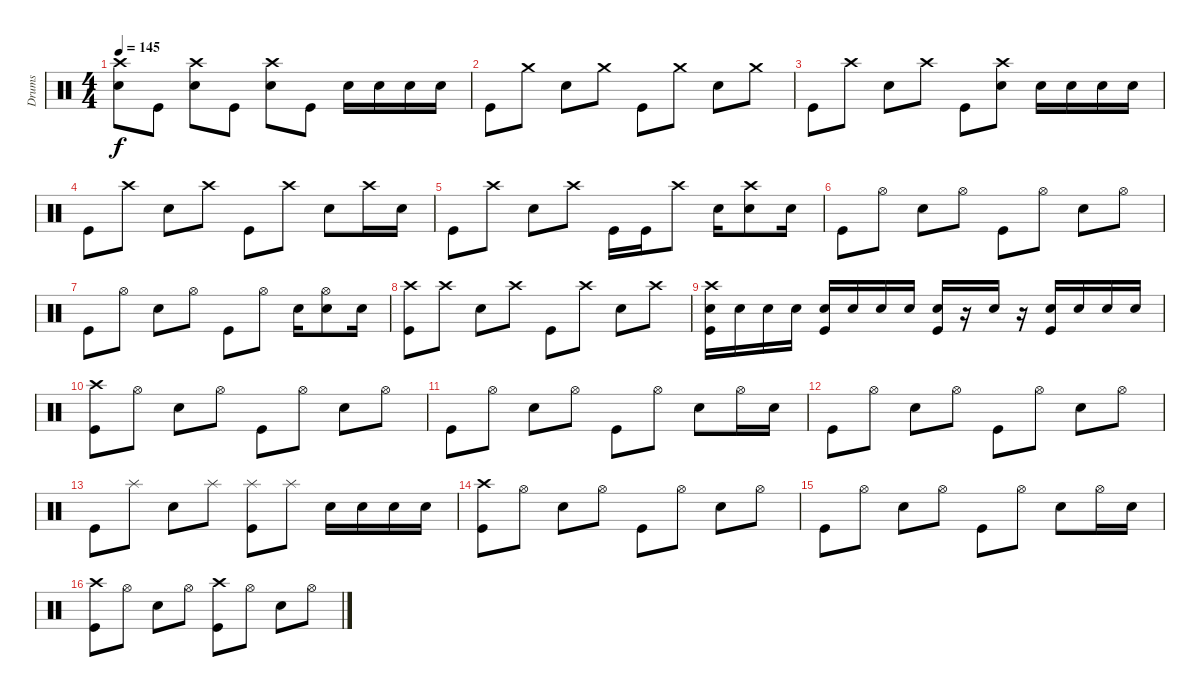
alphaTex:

\track ("Drums" "Drums") {instrument percussion}
\staff {score}
\articulation defaults
\ts (4 4)
\tempo 145
\clef neutral
\ks c
("Crash high (hit)" "Electric Snare (hit)").8{dy f} "Kick (hit)".8 ("Crash high (hit)" "Electric Snare (hit)").8 "Kick (hit)".8 ("Crash high (hit)" "Electric Snare (hit)").8 "Kick (hit)".8 "Electric Snare (hit)".16 "Electric Snare (hit)".16 "Electric Snare (hit)".16 "Electric Snare (hit)".16 |
"Kick (hit)".8 "Crash medium (hit)".8 "Electric Snare (hit)".8 "Crash medium (hit)".8 "Kick (hit)".8 "Crash medium (hit)".8 "Electric Snare (hit)".8 "Crash medium (hit)".8 |
"Kick (hit)".8 "Crash high (hit)".8 "Electric Snare (hit)".8 "Crash high (hit)".8 "Kick (hit)".8 ("Crash high (hit)" "Electric Snare (hit)").8 "Electric Snare (hit)".16 "Electric Snare (hit)".16 "Electric Snare (hit)".16 "Electric Snare (hit)".16 |
"Kick (hit)".8 "Crash high (hit)".8 "Electric Snare (hit)".8 "Crash high (hit)".8 "Kick (hit)".8 "Crash high (hit)".8 "Electric Snare (hit)".8 "Crash high (hit)".16 "Electric Snare (hit)".16 |
"Kick (hit)".8 "Crash high (hit)".8 "Electric Snare (hit)".8 "Crash high (hit)".8 "Kick (hit)".16 "Kick (hit)".16 "Crash high (hit)".8 "Electric Snare (hit)".16 ("Crash high (hit)" "Electric Snare (hit)").8 "Electric Snare (hit)".16 |
"Kick (hit)".8 "Hi-Hat (open)".8 "Electric Snare (hit)".8 "Hi-Hat (open)".8 "Kick (hit)".8 "Hi-Hat (open)".8 "Electric Snare (hit)".8 "Hi-Hat (open)".8 |
"Kick (hit)".8 "Hi-Hat (open)".8 "Electric Snare (hit)".8 "Hi-Hat (open)".8 "Kick (hit)".8 "Hi-Hat (open)".8 "Electric Snare (hit)".16 ("Electric Snare (hit)" "Hi-Hat (open)").8 "Electric Snare (hit)".16 |
("Crash high (hit)" "Kick (hit)").8 "Crash high (hit)".8 "Electric Snare (hit)".8 "Crash high (hit)".8 "Kick (hit)".8 "Crash high (hit)".8 "Electric Snare (hit)".8 "Crash high (hit)".8 |
("Crash high (hit)" "Electric Snare (hit)" "Kick (hit)").16 "Electric Snare (hit)".16 "Electric Snare (hit)".16 "Electric Snare (hit)".16 ("Electric Snare (hit)" "Kick (hit)").16 "Electric Snare (hit)".16 "Electric Snare (hit)".16 "Electric Snare (hit)".16 ("Electric Snare (hit)" "Kick (hit)").16 r.16 "Electric Snare (hit)".16 r.16 ("Electric Snare (hit)" "Kick (hit)").16 "Electric Snare (hit)".16 "Electric Snare (hit)".16 "Electric Snare (hit)".16 |
("Crash high (hit)" "Kick (hit)").8 "Hi-Hat (open)".8 "Electric Snare (hit)".8 "Hi-Hat (open)".8 "Kick (hit)".8 "Hi-Hat (open)".8 "Electric Snare (hit)".8 "Hi-Hat (open)".8 |
"Kick (hit)".8 "Hi-Hat (open)".8 "Electric Snare (hit)".8 "Hi-Hat (open)".8 "Kick (hit)".8 "Hi-Hat (open)".8 "Electric Snare (hit)".8 "Hi-Hat (open)".16 "Electric Snare (hit)".16 |
"Kick (hit)".8 "Hi-Hat (open)".8 "Electric Snare (hit)".8 "Hi-Hat (open)".8 "Kick (hit)".8 "Hi-Hat (open)".8 "Electric Snare (hit)".8 "Hi-Hat (open)".8 |
"Kick (hit)".8 "Splash (hit)".8 "Electric Snare (hit)".8 "Splash (hit)".8 ("Splash (hit)" "Kick (hit)").8 "Splash (hit)".8 "Electric Snare (hit)".16 "Electric Snare (hit)".16 "Electric Snare (hit)".16 "Electric Snare (hit)".16 |
("Crash high (hit)" "Kick (hit)").8 "Hi-Hat (open)".8 "Electric Snare (hit)".8 "Hi-Hat (open)".8 "Kick (hit)".8 "Hi-Hat (open)".8 "Electric Snare (hit)".8 "Hi-Hat (open)".8 |
"Kick (hit)".8 "Hi-Hat (open)".8 "Electric Snare (hit)".8 "Hi-Hat (open)".8 "Kick (hit)".8 "Hi-Hat (open)".8 "Electric Snare (hit)".8 "Hi-Hat (open)".16 "Electric Snare (hit)".16 |
("Crash high (hit)" "Kick (hit)").8 "Hi-Hat (open)".8 "Electric Snare (hit)".8 "Hi-Hat (open)".8 ("Crash high (hit)" "Kick (hit)").8 "Hi-Hat (open)".8 "Electric Snare (hit)".8 "Hi-Hat (open)".8
